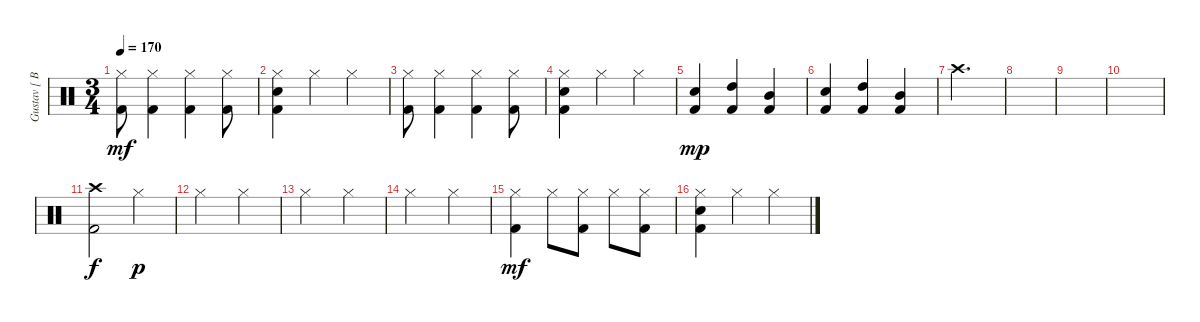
\track ("Gustav [ Batterie ]" "Gustav [ B") {instrument percussion}
\staff {score}
\articulation defaults
\ts (3 4)
\tempo 170
\clef neutral
\ks c
("Hi-Hat (closed)" "Kick (hit) 2").8{dy mf} ("Hi-Hat (closed)" "Kick (hit) 2").4 ("Hi-Hat (closed)" "Kick (hit) 2").4 ("Hi-Hat (closed)" "Kick (hit) 2").8 |
("Hi-Hat (closed)" "Snare (hit) 2" "Kick (hit) 2").4 "Hi-Hat (closed)".4 "Hi-Hat (closed)".4 |
("Hi-Hat (closed)" "Kick (hit) 2").8 ("Hi-Hat (closed)" "Kick (hit) 2").4 ("Hi-Hat (closed)" "Kick (hit) 2").4 ("Hi-Hat (closed)" "Kick (hit) 2").8 |
("Hi-Hat (closed)" "Snare (hit) 2" "Kick (hit) 2").4 "Hi-Hat (closed)".4 "Hi-Hat (closed)".4 |
("Snare (hit) 2" "Kick (hit) 2").4{dy mp} ("High Tom (hit)" "Kick (hit) 2").4 ("Mid Tom (hit)" "Kick (hit) 2").4 |
("Snare (hit) 2" "Kick (hit) 2").4 ("High Tom (hit)" "Kick (hit) 2").4 ("Mid Tom (hit)" "Kick (hit) 2").4 |
"Crash high (hit)".2{d} |
|
|
|
("Crash high (hit)" "Kick (hit) 2").2{dy f} "Hi-Hat (closed)".4{dy p} |
"Hi-Hat (closed)".2 "Hi-Hat (closed)".4 |
"Hi-Hat (closed)".2 "Hi-Hat (closed)".4 |
"Hi-Hat (closed)".2 "Hi-Hat (closed)".4 |
("Hi-Hat (closed)" "Kick (hit) 2").4{dy mf} "Hi-Hat (closed)".8 ("Hi-Hat (closed)" "Kick (hit) 2").8 "Hi-Hat (closed)".8 ("Hi-Hat (closed)" "Kick (hit) 2").8 |
("Hi-Hat (closed)" "Snare (hit) 2" "Kick (hit) 2").4 "Hi-Hat (closed)".4 "Hi-Hat (closed)".4
